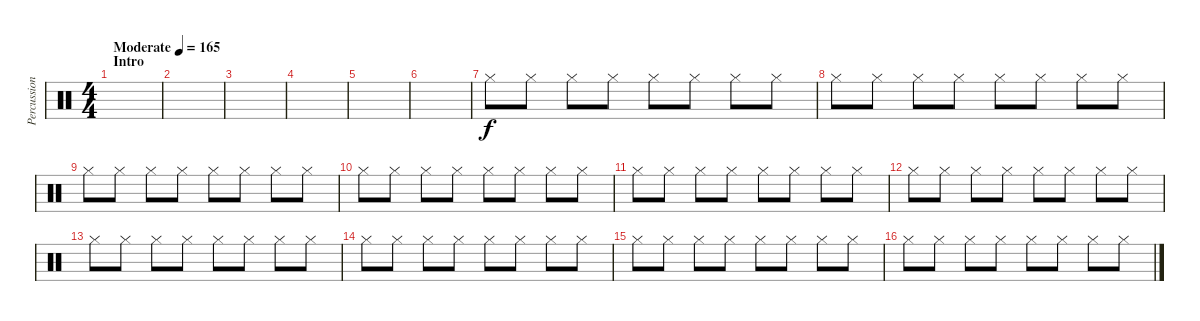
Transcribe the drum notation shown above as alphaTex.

\track ("Percussion" "Percussion") {instrument percussion}
\staff {score}
\articulation defaults
\ts (4 4)
\section ("" "Intro")
\tempo (165 "Moderate")
\clef neutral
\ks c
|
|
|
|
|
|
"Hi-Hat (closed)".8 "Hi-Hat (closed)".8 "Hi-Hat (closed)".8 "Hi-Hat (closed)".8 "Hi-Hat (closed)".8 "Hi-Hat (closed)".8 "Hi-Hat (closed)".8 "Hi-Hat (closed)".8 |
"Hi-Hat (closed)".8 "Hi-Hat (closed)".8 "Hi-Hat (closed)".8 "Hi-Hat (closed)".8 "Hi-Hat (closed)".8 "Hi-Hat (closed)".8 "Hi-Hat (closed)".8 "Hi-Hat (closed)".8 |
"Hi-Hat (closed)".8 "Hi-Hat (closed)".8 "Hi-Hat (closed)".8 "Hi-Hat (closed)".8 "Hi-Hat (closed)".8 "Hi-Hat (closed)".8 "Hi-Hat (closed)".8 "Hi-Hat (closed)".8 |
"Hi-Hat (closed)".8 "Hi-Hat (closed)".8 "Hi-Hat (closed)".8 "Hi-Hat (closed)".8 "Hi-Hat (closed)".8 "Hi-Hat (closed)".8 "Hi-Hat (closed)".8 "Hi-Hat (closed)".8 |
"Hi-Hat (closed)".8 "Hi-Hat (closed)".8 "Hi-Hat (closed)".8 "Hi-Hat (closed)".8 "Hi-Hat (closed)".8 "Hi-Hat (closed)".8 "Hi-Hat (closed)".8 "Hi-Hat (closed)".8 |
"Hi-Hat (closed)".8 "Hi-Hat (closed)".8 "Hi-Hat (closed)".8 "Hi-Hat (closed)".8 "Hi-Hat (closed)".8 "Hi-Hat (closed)".8 "Hi-Hat (closed)".8 "Hi-Hat (closed)".8 |
"Hi-Hat (closed)".8 "Hi-Hat (closed)".8 "Hi-Hat (closed)".8 "Hi-Hat (closed)".8 "Hi-Hat (closed)".8 "Hi-Hat (closed)".8 "Hi-Hat (closed)".8 "Hi-Hat (closed)".8 |
"Hi-Hat (closed)".8 "Hi-Hat (closed)".8 "Hi-Hat (closed)".8 "Hi-Hat (closed)".8 "Hi-Hat (closed)".8 "Hi-Hat (closed)".8 "Hi-Hat (closed)".8 "Hi-Hat (closed)".8 |
"Hi-Hat (closed)".8 "Hi-Hat (closed)".8 "Hi-Hat (closed)".8 "Hi-Hat (closed)".8 "Hi-Hat (closed)".8 "Hi-Hat (closed)".8 "Hi-Hat (closed)".8 "Hi-Hat (closed)".8 |
"Hi-Hat (closed)".8 "Hi-Hat (closed)".8 "Hi-Hat (closed)".8 "Hi-Hat (closed)".8 "Hi-Hat (closed)".8 "Hi-Hat (closed)".8 "Hi-Hat (closed)".8 "Hi-Hat (closed)".8
